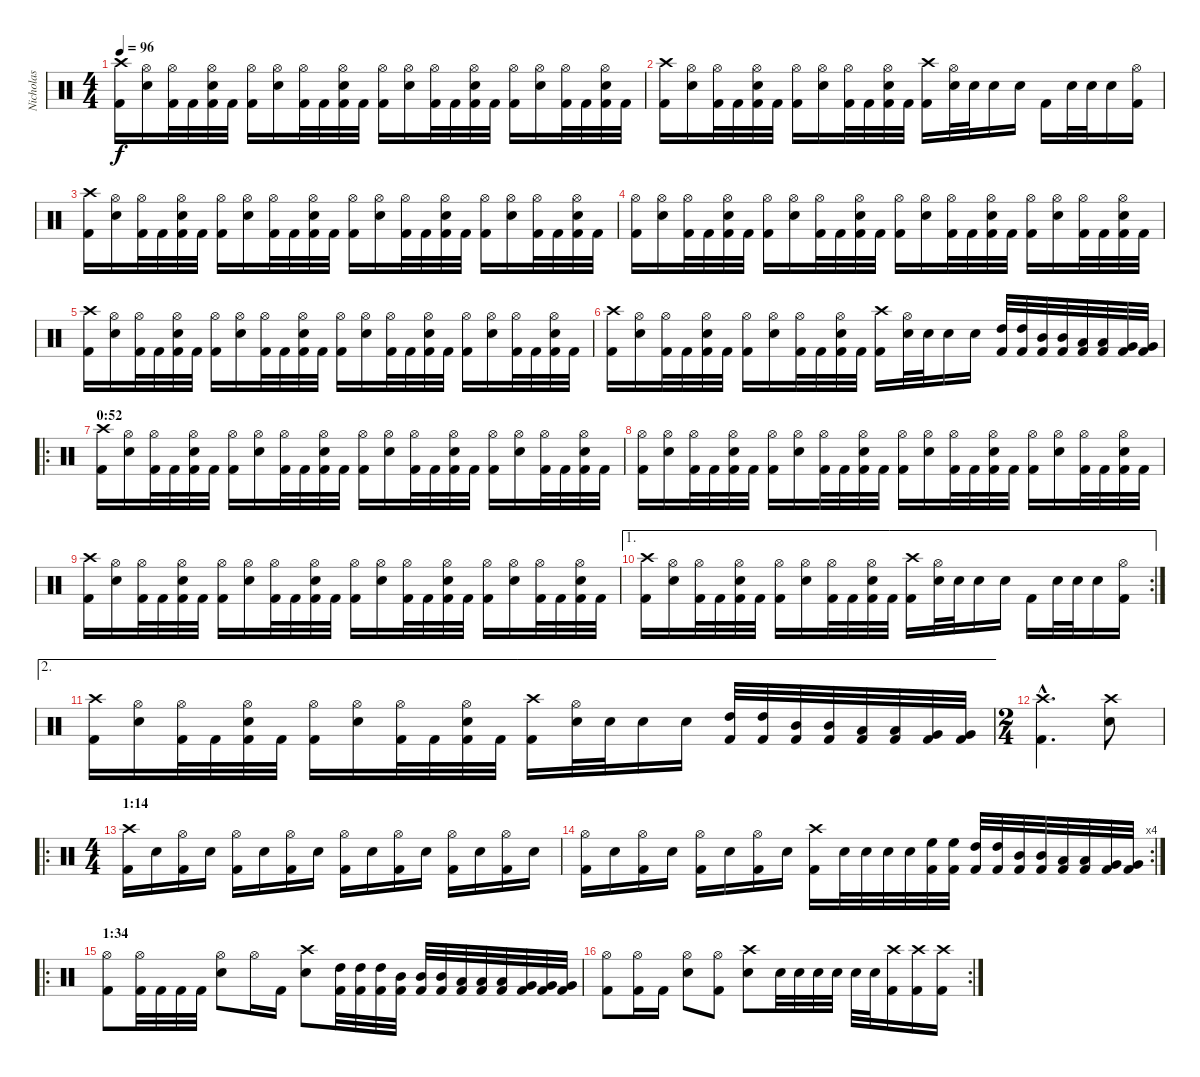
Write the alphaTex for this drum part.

\track ("Nicholas" "Nicholas") {instrument percussion}
\staff {score}
\articulation defaults
\ts (4 4)
\tempo 96
\clef neutral
\ks c
("Kick (hit) 2" "Crash high (hit)").16{dy f} ("Snare (hit) 2" "Hi-Hat (open)").16 ("Kick (hit) 2" "Hi-Hat (open)").32 "Kick (hit) 2".32 ("Kick (hit) 2" "Snare (hit) 2" "Hi-Hat (open)").32 "Kick (hit) 2".32 ("Kick (hit) 2" "Hi-Hat (open)").16 ("Snare (hit) 2" "Hi-Hat (open)").16 ("Kick (hit) 2" "Hi-Hat (open)").32 "Kick (hit) 2".32 ("Kick (hit) 2" "Snare (hit) 2" "Hi-Hat (open)").32 "Kick (hit) 2".32 ("Kick (hit) 2" "Hi-Hat (open)").16 ("Snare (hit) 2" "Hi-Hat (open)").16 ("Kick (hit) 2" "Hi-Hat (open)").32 "Kick (hit) 2".32 ("Kick (hit) 2" "Snare (hit) 2" "Hi-Hat (open)").32 "Kick (hit) 2".32 ("Kick (hit) 2" "Hi-Hat (open)").16 ("Snare (hit) 2" "Hi-Hat (open)").16 ("Kick (hit) 2" "Hi-Hat (open)").32 "Kick (hit) 2".32 ("Kick (hit) 2" "Snare (hit) 2" "Hi-Hat (open)").32 "Kick (hit) 2".32 |
("Kick (hit) 2" "Crash high (hit)").16 ("Snare (hit) 2" "Hi-Hat (open)").16 ("Kick (hit) 2" "Hi-Hat (open)").32 "Kick (hit) 2".32 ("Kick (hit) 2" "Snare (hit) 2" "Hi-Hat (open)").32 "Kick (hit) 2".32 ("Kick (hit) 2" "Hi-Hat (open)").16 ("Snare (hit) 2" "Hi-Hat (open)").16 ("Kick (hit) 2" "Hi-Hat (open)").32 "Kick (hit) 2".32 ("Kick (hit) 2" "Snare (hit) 2" "Hi-Hat (open)").32 "Kick (hit) 2".32 ("Kick (hit) 2" "Crash high (hit)").16 ("Snare (hit) 2" "Hi-Hat (open)").32 "Snare (hit) 2".32 "Snare (hit) 2".16 "Snare (hit) 2".16 "Kick (hit) 2".16 "Snare (hit) 2".32 "Snare (hit) 2".32 "Snare (hit) 2".16 ("Kick (hit) 2" "Hi-Hat (open)").16 |
("Kick (hit) 2" "Crash high (hit)").16 ("Snare (hit) 2" "Hi-Hat (open)").16 ("Kick (hit) 2" "Hi-Hat (open)").32 "Kick (hit) 2".32 ("Kick (hit) 2" "Snare (hit) 2" "Hi-Hat (open)").32 "Kick (hit) 2".32 ("Kick (hit) 2" "Hi-Hat (open)").16 ("Snare (hit) 2" "Hi-Hat (open)").16 ("Kick (hit) 2" "Hi-Hat (open)").32 "Kick (hit) 2".32 ("Kick (hit) 2" "Snare (hit) 2" "Hi-Hat (open)").32 "Kick (hit) 2".32 ("Kick (hit) 2" "Hi-Hat (open)").16 ("Snare (hit) 2" "Hi-Hat (open)").16 ("Kick (hit) 2" "Hi-Hat (open)").32 "Kick (hit) 2".32 ("Kick (hit) 2" "Snare (hit) 2" "Hi-Hat (open)").32 "Kick (hit) 2".32 ("Kick (hit) 2" "Hi-Hat (open)").16 ("Snare (hit) 2" "Hi-Hat (open)").16 ("Kick (hit) 2" "Hi-Hat (open)").32 "Kick (hit) 2".32 ("Kick (hit) 2" "Snare (hit) 2" "Hi-Hat (open)").32 "Kick (hit) 2".32 |
("Kick (hit) 2" "Hi-Hat (open)").16 ("Snare (hit) 2" "Hi-Hat (open)").16 ("Kick (hit) 2" "Hi-Hat (open)").32 "Kick (hit) 2".32 ("Kick (hit) 2" "Snare (hit) 2" "Hi-Hat (open)").32 "Kick (hit) 2".32 ("Kick (hit) 2" "Hi-Hat (open)").16 ("Snare (hit) 2" "Hi-Hat (open)").16 ("Kick (hit) 2" "Hi-Hat (open)").32 "Kick (hit) 2".32 ("Kick (hit) 2" "Snare (hit) 2" "Hi-Hat (open)").32 "Kick (hit) 2".32 ("Kick (hit) 2" "Hi-Hat (open)").16 ("Snare (hit) 2" "Hi-Hat (open)").16 ("Kick (hit) 2" "Hi-Hat (open)").32 "Kick (hit) 2".32 ("Kick (hit) 2" "Snare (hit) 2" "Hi-Hat (open)").32 "Kick (hit) 2".32 ("Kick (hit) 2" "Hi-Hat (open)").16 ("Snare (hit) 2" "Hi-Hat (open)").16 ("Kick (hit) 2" "Hi-Hat (open)").32 "Kick (hit) 2".32 ("Kick (hit) 2" "Snare (hit) 2" "Hi-Hat (open)").32 "Kick (hit) 2".32 |
("Kick (hit) 2" "Crash high (hit)").16 ("Snare (hit) 2" "Hi-Hat (open)").16 ("Kick (hit) 2" "Hi-Hat (open)").32 "Kick (hit) 2".32 ("Kick (hit) 2" "Snare (hit) 2" "Hi-Hat (open)").32 "Kick (hit) 2".32 ("Kick (hit) 2" "Hi-Hat (open)").16 ("Snare (hit) 2" "Hi-Hat (open)").16 ("Kick (hit) 2" "Hi-Hat (open)").32 "Kick (hit) 2".32 ("Kick (hit) 2" "Snare (hit) 2" "Hi-Hat (open)").32 "Kick (hit) 2".32 ("Kick (hit) 2" "Hi-Hat (open)").16 ("Snare (hit) 2" "Hi-Hat (open)").16 ("Kick (hit) 2" "Hi-Hat (open)").32 "Kick (hit) 2".32 ("Kick (hit) 2" "Snare (hit) 2" "Hi-Hat (open)").32 "Kick (hit) 2".32 ("Kick (hit) 2" "Hi-Hat (open)").16 ("Snare (hit) 2" "Hi-Hat (open)").16 ("Kick (hit) 2" "Hi-Hat (open)").32 "Kick (hit) 2".32 ("Kick (hit) 2" "Snare (hit) 2" "Hi-Hat (open)").32 "Kick (hit) 2".32 |
("Kick (hit) 2" "Crash high (hit)").16 ("Snare (hit) 2" "Hi-Hat (open)").16 ("Kick (hit) 2" "Hi-Hat (open)").32 "Kick (hit) 2".32 ("Kick (hit) 2" "Snare (hit) 2" "Hi-Hat (open)").32 "Kick (hit) 2".32 ("Kick (hit) 2" "Hi-Hat (open)").16 ("Snare (hit) 2" "Hi-Hat (open)").16 ("Kick (hit) 2" "Hi-Hat (open)").32 "Kick (hit) 2".32 ("Kick (hit) 2" "Snare (hit) 2" "Hi-Hat (open)").32 "Kick (hit) 2".32 ("Kick (hit) 2" "Crash high (hit)").16 ("Snare (hit) 2" "Hi-Hat (open)").32 "Snare (hit) 2".32 "Snare (hit) 2".16 "Snare (hit) 2".16 ("Kick (hit) 2" "High Tom (hit)").32 ("Kick (hit) 2" "High Tom (hit)").32 ("Kick (hit) 2" "Mid Tom (hit)").32 ("Kick (hit) 2" "Mid Tom (hit)").32 ("Kick (hit) 2" "Low Tom (hit)").32 ("Kick (hit) 2" "Low Tom (hit)").32 ("Kick (hit) 2" "Very Low Tom (hit)").32 ("Kick (hit) 2" "Very Low Tom (hit)").32 |
\ro
\section ("" "0:52")
("Kick (hit) 2" "Crash high (hit)").16 ("Snare (hit) 2" "Hi-Hat (open)").16 ("Kick (hit) 2" "Hi-Hat (open)").32 "Kick (hit) 2".32 ("Kick (hit) 2" "Snare (hit) 2" "Hi-Hat (open)").32 "Kick (hit) 2".32 ("Kick (hit) 2" "Hi-Hat (open)").16 ("Snare (hit) 2" "Hi-Hat (open)").16 ("Kick (hit) 2" "Hi-Hat (open)").32 "Kick (hit) 2".32 ("Kick (hit) 2" "Snare (hit) 2" "Hi-Hat (open)").32 "Kick (hit) 2".32 ("Kick (hit) 2" "Hi-Hat (open)").16 ("Snare (hit) 2" "Hi-Hat (open)").16 ("Kick (hit) 2" "Hi-Hat (open)").32 "Kick (hit) 2".32 ("Kick (hit) 2" "Snare (hit) 2" "Hi-Hat (open)").32 "Kick (hit) 2".32 ("Kick (hit) 2" "Hi-Hat (open)").16 ("Snare (hit) 2" "Hi-Hat (open)").16 ("Kick (hit) 2" "Hi-Hat (open)").32 "Kick (hit) 2".32 ("Kick (hit) 2" "Snare (hit) 2" "Hi-Hat (open)").32 "Kick (hit) 2".32 |
("Kick (hit) 2" "Hi-Hat (open)").16 ("Snare (hit) 2" "Hi-Hat (open)").16 ("Kick (hit) 2" "Hi-Hat (open)").32 "Kick (hit) 2".32 ("Kick (hit) 2" "Snare (hit) 2" "Hi-Hat (open)").32 "Kick (hit) 2".32 ("Kick (hit) 2" "Hi-Hat (open)").16 ("Snare (hit) 2" "Hi-Hat (open)").16 ("Kick (hit) 2" "Hi-Hat (open)").32 "Kick (hit) 2".32 ("Kick (hit) 2" "Snare (hit) 2" "Hi-Hat (open)").32 "Kick (hit) 2".32 ("Kick (hit) 2" "Hi-Hat (open)").16 ("Snare (hit) 2" "Hi-Hat (open)").16 ("Kick (hit) 2" "Hi-Hat (open)").32 "Kick (hit) 2".32 ("Kick (hit) 2" "Snare (hit) 2" "Hi-Hat (open)").32 "Kick (hit) 2".32 ("Kick (hit) 2" "Hi-Hat (open)").16 ("Snare (hit) 2" "Hi-Hat (open)").16 ("Kick (hit) 2" "Hi-Hat (open)").32 "Kick (hit) 2".32 ("Kick (hit) 2" "Snare (hit) 2" "Hi-Hat (open)").32 "Kick (hit) 2".32 |
("Kick (hit) 2" "Crash high (hit)").16 ("Snare (hit) 2" "Hi-Hat (open)").16 ("Kick (hit) 2" "Hi-Hat (open)").32 "Kick (hit) 2".32 ("Kick (hit) 2" "Snare (hit) 2" "Hi-Hat (open)").32 "Kick (hit) 2".32 ("Kick (hit) 2" "Hi-Hat (open)").16 ("Snare (hit) 2" "Hi-Hat (open)").16 ("Kick (hit) 2" "Hi-Hat (open)").32 "Kick (hit) 2".32 ("Kick (hit) 2" "Snare (hit) 2" "Hi-Hat (open)").32 "Kick (hit) 2".32 ("Kick (hit) 2" "Hi-Hat (open)").16 ("Snare (hit) 2" "Hi-Hat (open)").16 ("Kick (hit) 2" "Hi-Hat (open)").32 "Kick (hit) 2".32 ("Kick (hit) 2" "Snare (hit) 2" "Hi-Hat (open)").32 "Kick (hit) 2".32 ("Kick (hit) 2" "Hi-Hat (open)").16 ("Snare (hit) 2" "Hi-Hat (open)").16 ("Kick (hit) 2" "Hi-Hat (open)").32 "Kick (hit) 2".32 ("Kick (hit) 2" "Snare (hit) 2" "Hi-Hat (open)").32 "Kick (hit) 2".32 |
\ae 1
\rc 2
("Kick (hit) 2" "Crash high (hit)").16 ("Snare (hit) 2" "Hi-Hat (open)").16 ("Kick (hit) 2" "Hi-Hat (open)").32 "Kick (hit) 2".32 ("Kick (hit) 2" "Snare (hit) 2" "Hi-Hat (open)").32 "Kick (hit) 2".32 ("Kick (hit) 2" "Hi-Hat (open)").16 ("Snare (hit) 2" "Hi-Hat (open)").16 ("Kick (hit) 2" "Hi-Hat (open)").32 "Kick (hit) 2".32 ("Kick (hit) 2" "Snare (hit) 2" "Hi-Hat (open)").32 "Kick (hit) 2".32 ("Kick (hit) 2" "Crash high (hit)").16 ("Snare (hit) 2" "Hi-Hat (open)").32 "Snare (hit) 2".32 "Snare (hit) 2".16 "Snare (hit) 2".16 "Kick (hit) 2".16 "Snare (hit) 2".32 "Snare (hit) 2".32 "Snare (hit) 2".16 ("Kick (hit) 2" "Hi-Hat (open)").16 |
\ae 2
("Kick (hit) 2" "Crash high (hit)").16 ("Snare (hit) 2" "Hi-Hat (open)").16 ("Kick (hit) 2" "Hi-Hat (open)").32 "Kick (hit) 2".32 ("Kick (hit) 2" "Snare (hit) 2" "Hi-Hat (open)").32 "Kick (hit) 2".32 ("Kick (hit) 2" "Hi-Hat (open)").16 ("Snare (hit) 2" "Hi-Hat (open)").16 ("Kick (hit) 2" "Hi-Hat (open)").32 "Kick (hit) 2".32 ("Kick (hit) 2" "Snare (hit) 2" "Hi-Hat (open)").32 "Kick (hit) 2".32 ("Kick (hit) 2" "Crash high (hit)").16 ("Snare (hit) 2" "Hi-Hat (open)").32 "Snare (hit) 2".32 "Snare (hit) 2".16 "Snare (hit) 2".16 ("Kick (hit) 2" "High Tom (hit)").32 ("Kick (hit) 2" "High Tom (hit)").32 ("Kick (hit) 2" "Mid Tom (hit)").32 ("Kick (hit) 2" "Mid Tom (hit)").32 ("Kick (hit) 2" "Low Tom (hit)").32 ("Kick (hit) 2" "Low Tom (hit)").32 ("Kick (hit) 2" "Very Low Tom (hit)").32 ("Kick (hit) 2" "Very Low Tom (hit)").32 |
\ts (2 4)
("Kick (hit) 2"{hac} "Crash high (hit)"{hac}).4{d} ("Snare (hit) 2" "Crash high (hit)").8 |
\ro
\ts (4 4)
\section ("" "1:14")
("Kick (hit) 2" "Crash high (hit)").16 "Snare (hit) 2".16 ("Kick (hit) 2" "Hi-Hat (open)").16 "Snare (hit) 2".16 ("Kick (hit) 2" "Hi-Hat (open)").16 "Snare (hit) 2".16 ("Kick (hit) 2" "Hi-Hat (open)").16 "Snare (hit) 2".16 ("Kick (hit) 2" "Hi-Hat (open)").16 "Snare (hit) 2".16 ("Kick (hit) 2" "Hi-Hat (open)").16 "Snare (hit) 2".16 ("Kick (hit) 2" "Hi-Hat (open)").16 "Snare (hit) 2".16 ("Kick (hit) 2" "Hi-Hat (open)").16 "Snare (hit) 2".16 |
\rc 4
("Kick (hit) 2" "Hi-Hat (open)").16 "Snare (hit) 2".16 ("Kick (hit) 2" "Hi-Hat (open)").16 "Snare (hit) 2".16 ("Kick (hit) 2" "Hi-Hat (open)").16 "Snare (hit) 2".16 ("Kick (hit) 2" "Hi-Hat (open)").16 "Snare (hit) 2".16 ("Kick (hit) 2" "Crash high (hit)").16 "Snare (hit) 2".32 "Snare (hit) 2".32 "Snare (hit) 2".32 "Snare (hit) 2".32 ("Kick (hit) 2" "High Floor Tom (hit)").32 ("Kick (hit) 2" "High Floor Tom (hit)").32 ("Kick (hit) 2" "High Tom (hit)").32 ("Kick (hit) 2" "High Tom (hit)").32 ("Kick (hit) 2" "Mid Tom (hit)").32 ("Kick (hit) 2" "Mid Tom (hit)").32 ("Kick (hit) 2" "Low Tom (hit)").32 ("Kick (hit) 2" "Low Tom (hit)").32 ("Kick (hit) 2" "Very Low Tom (hit)").32 ("Kick (hit) 2" "Very Low Tom (hit)").32 |
\ro
\section ("" "1:34")
("Kick (hit) 2" "Hi-Hat (open)").8 ("Kick (hit) 2" "Hi-Hat (open)").32 "Kick (hit) 2".32 "Kick (hit) 2".32 "Kick (hit) 2".32 ("Snare (hit) 2" "Hi-Hat (open)").8 "Hi-Hat (open)".16 "Kick (hit) 2".16 ("Snare (hit) 2" "Crash high (hit)").8 ("Kick (hit) 2" "High Tom (hit)").32 ("Kick (hit) 2" "High Tom (hit)").32 ("Kick (hit) 2" "High Tom (hit)").32 ("Kick (hit) 2" "Mid Tom (hit)").32 ("Kick (hit) 2" "Mid Tom (hit)").32 ("Kick (hit) 2" "Mid Tom (hit)").32 ("Kick (hit) 2" "Low Tom (hit)").32 ("Kick (hit) 2" "Low Tom (hit)").32 ("Kick (hit) 2" "Low Tom (hit)").32 ("Kick (hit) 2" "Very Low Tom (hit)").32 ("Kick (hit) 2" "Very Low Tom (hit)").32 ("Kick (hit) 2" "Very Low Tom (hit)").32 |
\rc 2
("Kick (hit) 2" "Hi-Hat (open)").8 ("Kick (hit) 2" "Hi-Hat (open)").16 "Kick (hit) 2".16 ("Snare (hit) 2" "Hi-Hat (open)").8 ("Kick (hit) 2" "Hi-Hat (open)").8 ("Snare (hit) 2" "Crash high (hit)").8 "Snare (hit) 2".32 "Snare (hit) 2".32 "Snare (hit) 2".32 "Snare (hit) 2".32 "Snare (hit) 2".32 "Snare (hit) 2".32 ("Kick (hit) 2" "Crash high (hit)").16 ("Kick (hit) 2" "Crash high (hit)").16 ("Kick (hit) 2" "Crash high (hit)").16
